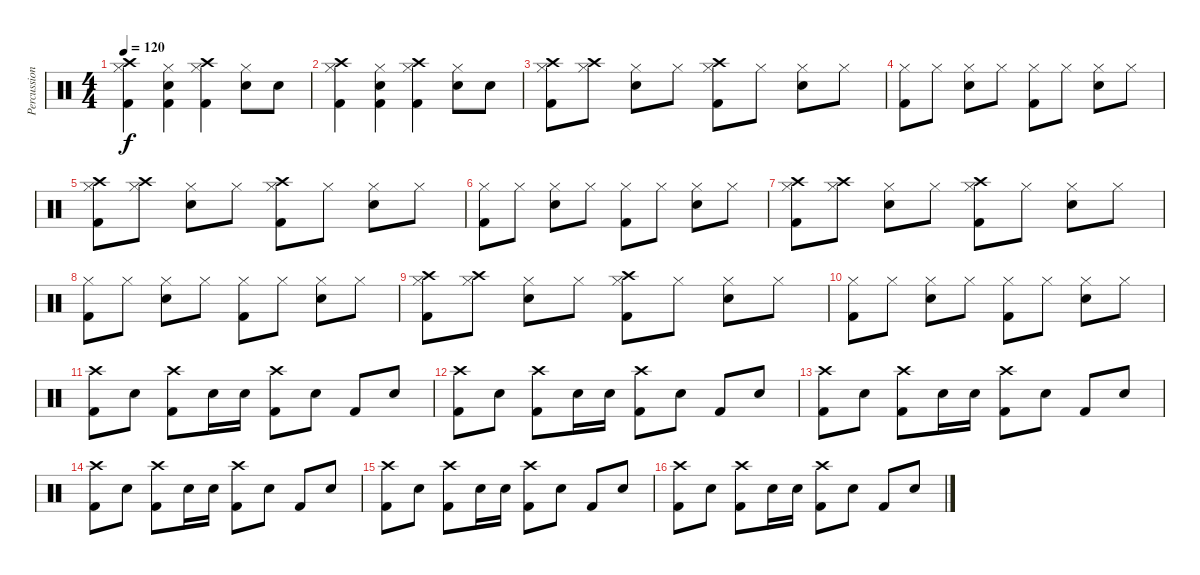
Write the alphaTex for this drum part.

\track ("Percussion" "Percussion") {instrument percussion}
\staff {score}
\articulation defaults
\ts (4 4)
\tempo 120
\clef neutral
\ks c
("Crash high (hit)" "Hi-Hat (closed)" "Kick (hit) 2").4{dy f} ("Hi-Hat (closed)" "Snare (hit) 2" "Kick (hit) 2").4 ("Crash high (hit)" "Hi-Hat (closed)" "Kick (hit) 2").4 ("Hi-Hat (closed)" "Snare (hit) 2").8 "Snare (hit) 2".8 |
("Crash high (hit)" "Hi-Hat (closed)" "Kick (hit) 2").4 ("Hi-Hat (closed)" "Snare (hit) 2" "Kick (hit) 2").4 ("Crash high (hit)" "Hi-Hat (closed)" "Kick (hit) 2").4 ("Hi-Hat (closed)" "Snare (hit) 2").8 "Snare (hit) 2".8 |
("Crash high (hit)" "Hi-Hat (closed)" "Kick (hit) 2").8 ("Crash high (hit)" "Hi-Hat (closed)").8 ("Hi-Hat (closed)" "Snare (hit) 2").8 "Hi-Hat (closed)".8 ("Crash high (hit)" "Hi-Hat (closed)" "Kick (hit) 2").8 "Hi-Hat (closed)".8 ("Hi-Hat (closed)" "Snare (hit) 2").8 "Hi-Hat (closed)".8 |
("Hi-Hat (closed)" "Kick (hit) 2").8 "Hi-Hat (closed)".8 ("Hi-Hat (closed)" "Snare (hit) 2").8 "Hi-Hat (closed)".8 ("Hi-Hat (closed)" "Kick (hit) 2").8 "Hi-Hat (closed)".8 ("Hi-Hat (closed)" "Snare (hit) 2").8 "Hi-Hat (closed)".8 |
("Crash high (hit)" "Hi-Hat (closed)" "Kick (hit) 2").8 ("Crash high (hit)" "Hi-Hat (closed)").8 ("Hi-Hat (closed)" "Snare (hit) 2").8 "Hi-Hat (closed)".8 ("Crash high (hit)" "Hi-Hat (closed)" "Kick (hit) 2").8 "Hi-Hat (closed)".8 ("Hi-Hat (closed)" "Snare (hit) 2").8 "Hi-Hat (closed)".8 |
("Hi-Hat (closed)" "Kick (hit) 2").8 "Hi-Hat (closed)".8 ("Hi-Hat (closed)" "Snare (hit) 2").8 "Hi-Hat (closed)".8 ("Hi-Hat (closed)" "Kick (hit) 2").8 "Hi-Hat (closed)".8 ("Hi-Hat (closed)" "Snare (hit) 2").8 "Hi-Hat (closed)".8 |
("Crash high (hit)" "Hi-Hat (closed)" "Kick (hit) 2").8 ("Crash high (hit)" "Hi-Hat (closed)").8 ("Hi-Hat (closed)" "Snare (hit) 2").8 "Hi-Hat (closed)".8 ("Crash high (hit)" "Hi-Hat (closed)" "Kick (hit) 2").8 "Hi-Hat (closed)".8 ("Hi-Hat (closed)" "Snare (hit) 2").8 "Hi-Hat (closed)".8 |
("Hi-Hat (closed)" "Kick (hit) 2").8 "Hi-Hat (closed)".8 ("Hi-Hat (closed)" "Snare (hit) 2").8 "Hi-Hat (closed)".8 ("Hi-Hat (closed)" "Kick (hit) 2").8 "Hi-Hat (closed)".8 ("Hi-Hat (closed)" "Snare (hit) 2").8 "Hi-Hat (closed)".8 |
("Crash high (hit)" "Hi-Hat (closed)" "Kick (hit) 2").8 ("Crash high (hit)" "Hi-Hat (closed)").8 ("Hi-Hat (closed)" "Snare (hit) 2").8 "Hi-Hat (closed)".8 ("Crash high (hit)" "Hi-Hat (closed)" "Kick (hit) 2").8 "Hi-Hat (closed)".8 ("Hi-Hat (closed)" "Snare (hit) 2").8 "Hi-Hat (closed)".8 |
("Hi-Hat (closed)" "Kick (hit) 2").8 "Hi-Hat (closed)".8 ("Hi-Hat (closed)" "Snare (hit) 2").8 "Hi-Hat (closed)".8 ("Hi-Hat (closed)" "Kick (hit) 2").8 "Hi-Hat (closed)".8 ("Hi-Hat (closed)" "Snare (hit) 2").8 "Hi-Hat (closed)".8 |
("Crash high (hit)" "Kick (hit) 2").8 "Snare (hit) 2".8 ("Crash high (hit)" "Kick (hit) 2").8 "Snare (hit) 2".16 "Snare (hit) 2".16 ("Crash high (hit)" "Kick (hit) 2").8 "Snare (hit) 2".8 "Kick (hit) 2".8 "Snare (hit) 2".8 |
("Crash high (hit)" "Kick (hit) 2").8 "Snare (hit) 2".8 ("Crash high (hit)" "Kick (hit) 2").8 "Snare (hit) 2".16 "Snare (hit) 2".16 ("Crash high (hit)" "Kick (hit) 2").8 "Snare (hit) 2".8 "Kick (hit) 2".8 "Snare (hit) 2".8 |
("Crash high (hit)" "Kick (hit) 2").8 "Snare (hit) 2".8 ("Crash high (hit)" "Kick (hit) 2").8 "Snare (hit) 2".16 "Snare (hit) 2".16 ("Crash high (hit)" "Kick (hit) 2").8 "Snare (hit) 2".8 "Kick (hit) 2".8 "Snare (hit) 2".8 |
("Crash high (hit)" "Kick (hit) 2").8 "Snare (hit) 2".8 ("Crash high (hit)" "Kick (hit) 2").8 "Snare (hit) 2".16 "Snare (hit) 2".16 ("Crash high (hit)" "Kick (hit) 2").8 "Snare (hit) 2".8 "Kick (hit) 2".8 "Snare (hit) 2".8 |
("Crash high (hit)" "Kick (hit) 2").8 "Snare (hit) 2".8 ("Crash high (hit)" "Kick (hit) 2").8 "Snare (hit) 2".16 "Snare (hit) 2".16 ("Crash high (hit)" "Kick (hit) 2").8 "Snare (hit) 2".8 "Kick (hit) 2".8 "Snare (hit) 2".8 |
("Crash high (hit)" "Kick (hit) 2").8 "Snare (hit) 2".8 ("Crash high (hit)" "Kick (hit) 2").8 "Snare (hit) 2".16 "Snare (hit) 2".16 ("Crash high (hit)" "Kick (hit) 2").8 "Snare (hit) 2".8 "Kick (hit) 2".8 "Snare (hit) 2".8
